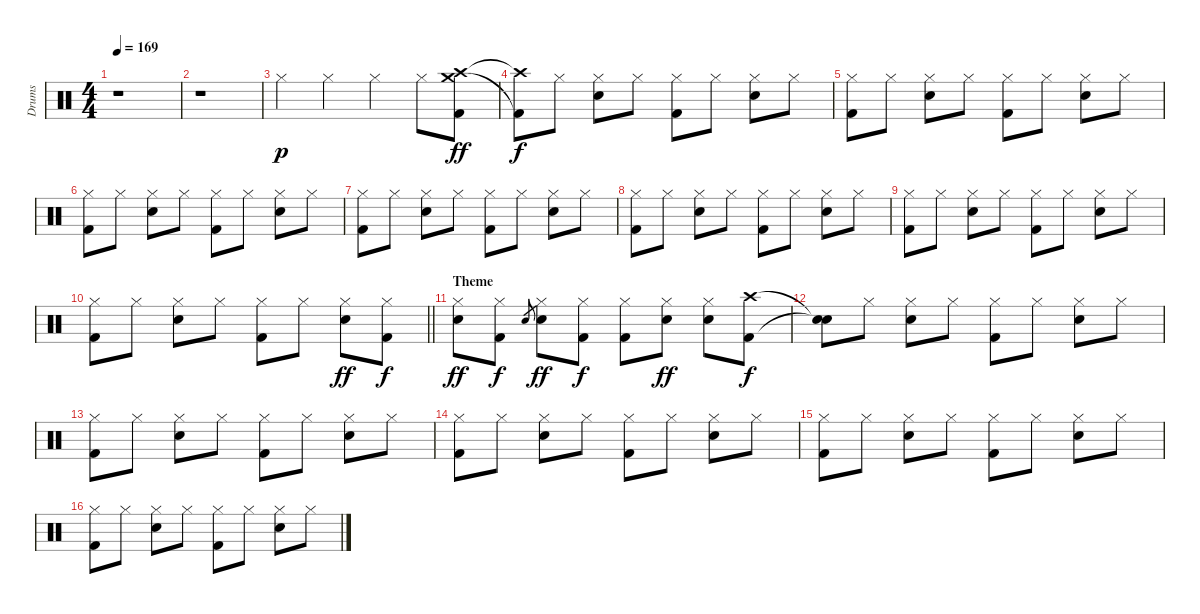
\track ("Drums" "Drums") {instrument percussion}
\staff {score}
\articulation defaults
\ts (4 4)
\tempo 169
\clef neutral
\ks c
r.1{dy p} |
r.1 |
"Hi-Hat (closed)".4 "Hi-Hat (closed)".4 "Hi-Hat (closed)".4 "Hi-Hat (closed)".8 ("Crash high (hit)" "Crash medium (hit)" "Kick (hit) 2").8{dy ff} |
("Crash high (hit)"{t} "Kick (hit) 2"{t}).8{dy f} "Hi-Hat (closed)".8 ("Hi-Hat (closed)" "Snare (hit) 2").8 "Hi-Hat (closed)".8 ("Hi-Hat (closed)" "Kick (hit) 2").8 "Hi-Hat (closed)".8 ("Hi-Hat (closed)" "Snare (hit) 2").8 "Hi-Hat (closed)".8 |
("Hi-Hat (closed)" "Kick (hit) 2").8 "Hi-Hat (closed)".8 ("Hi-Hat (closed)" "Snare (hit) 2").8 "Hi-Hat (closed)".8 ("Hi-Hat (closed)" "Kick (hit) 2").8 "Hi-Hat (closed)".8 ("Hi-Hat (closed)" "Snare (hit) 2").8 "Hi-Hat (closed)".8 |
("Hi-Hat (closed)" "Kick (hit) 2").8 "Hi-Hat (closed)".8 ("Hi-Hat (closed)" "Snare (hit) 2").8 "Hi-Hat (closed)".8 ("Hi-Hat (closed)" "Kick (hit) 2").8 "Hi-Hat (closed)".8 ("Hi-Hat (closed)" "Snare (hit) 2").8 "Hi-Hat (closed)".8 |
("Hi-Hat (closed)" "Kick (hit) 2").8 "Hi-Hat (closed)".8 ("Hi-Hat (closed)" "Snare (hit) 2").8 "Hi-Hat (closed)".8 ("Hi-Hat (closed)" "Kick (hit) 2").8 "Hi-Hat (closed)".8 ("Hi-Hat (closed)" "Snare (hit) 2").8 "Hi-Hat (closed)".8 |
("Hi-Hat (closed)" "Kick (hit) 2").8 "Hi-Hat (closed)".8 ("Hi-Hat (closed)" "Snare (hit) 2").8 "Hi-Hat (closed)".8 ("Hi-Hat (closed)" "Kick (hit) 2").8 "Hi-Hat (closed)".8 ("Hi-Hat (closed)" "Snare (hit) 2").8 "Hi-Hat (closed)".8 |
("Hi-Hat (closed)" "Kick (hit) 2").8 "Hi-Hat (closed)".8 ("Hi-Hat (closed)" "Snare (hit) 2").8 "Hi-Hat (closed)".8 ("Hi-Hat (closed)" "Kick (hit) 2").8 "Hi-Hat (closed)".8 ("Hi-Hat (closed)" "Snare (hit) 2").8 "Hi-Hat (closed)".8 |
\barLineRight lightlight
("Hi-Hat (closed)" "Kick (hit) 2").8 "Hi-Hat (closed)".8 ("Hi-Hat (closed)" "Snare (hit) 2").8 "Hi-Hat (closed)".8 ("Hi-Hat (closed)" "Kick (hit) 2").8 "Hi-Hat (closed)".8 ("Hi-Hat (closed)" "Snare (hit) 2").8{dy ff} ("Hi-Hat (closed)" "Kick (hit) 2").8{dy f} |
\section ("" "Theme")
("Hi-Hat (closed)" "Snare (hit) 2").8{dy ff} ("Hi-Hat (closed)" "Kick (hit) 2").8{dy f} "Snare (hit) 2".8{gr} ("Hi-Hat (closed)" "Snare (hit) 2").8{dy ff} ("Hi-Hat (closed)" "Kick (hit) 2").8{dy f} ("Hi-Hat (closed)" "Kick (hit) 2").8 ("Hi-Hat (closed)" "Snare (hit) 2").8{dy ff} ("Hi-Hat (closed)" "Snare (hit) 2").8 ("Crash high (hit)" "Kick (hit) 2").8{dy f} |
("Snare (hit)"{t} "Snare (hit)"{t}).8 "Hi-Hat (closed)".8 ("Hi-Hat (closed)" "Snare (hit) 2").8 "Hi-Hat (closed)".8 ("Hi-Hat (closed)" "Kick (hit) 2").8 "Hi-Hat (closed)".8 ("Hi-Hat (closed)" "Snare (hit) 2").8 "Hi-Hat (closed)".8 |
("Hi-Hat (closed)" "Kick (hit) 2").8 "Hi-Hat (closed)".8 ("Hi-Hat (closed)" "Snare (hit) 2").8 "Hi-Hat (closed)".8 ("Hi-Hat (closed)" "Kick (hit) 2").8 "Hi-Hat (closed)".8 ("Hi-Hat (closed)" "Snare (hit) 2").8 "Hi-Hat (closed)".8 |
("Hi-Hat (closed)" "Kick (hit) 2").8 "Hi-Hat (closed)".8 ("Hi-Hat (closed)" "Snare (hit) 2").8 "Hi-Hat (closed)".8 ("Hi-Hat (closed)" "Kick (hit) 2").8 "Hi-Hat (closed)".8 ("Hi-Hat (closed)" "Snare (hit) 2").8 "Hi-Hat (closed)".8 |
("Hi-Hat (closed)" "Kick (hit) 2").8 "Hi-Hat (closed)".8 ("Hi-Hat (closed)" "Snare (hit) 2").8 "Hi-Hat (closed)".8 ("Hi-Hat (closed)" "Kick (hit) 2").8 "Hi-Hat (closed)".8 ("Hi-Hat (closed)" "Snare (hit) 2").8 "Hi-Hat (closed)".8 |
("Hi-Hat (closed)" "Kick (hit) 2").8 "Hi-Hat (closed)".8 ("Hi-Hat (closed)" "Snare (hit) 2").8 "Hi-Hat (closed)".8 ("Hi-Hat (closed)" "Kick (hit) 2").8 "Hi-Hat (closed)".8 ("Hi-Hat (closed)" "Snare (hit) 2").8 "Hi-Hat (closed)".8
